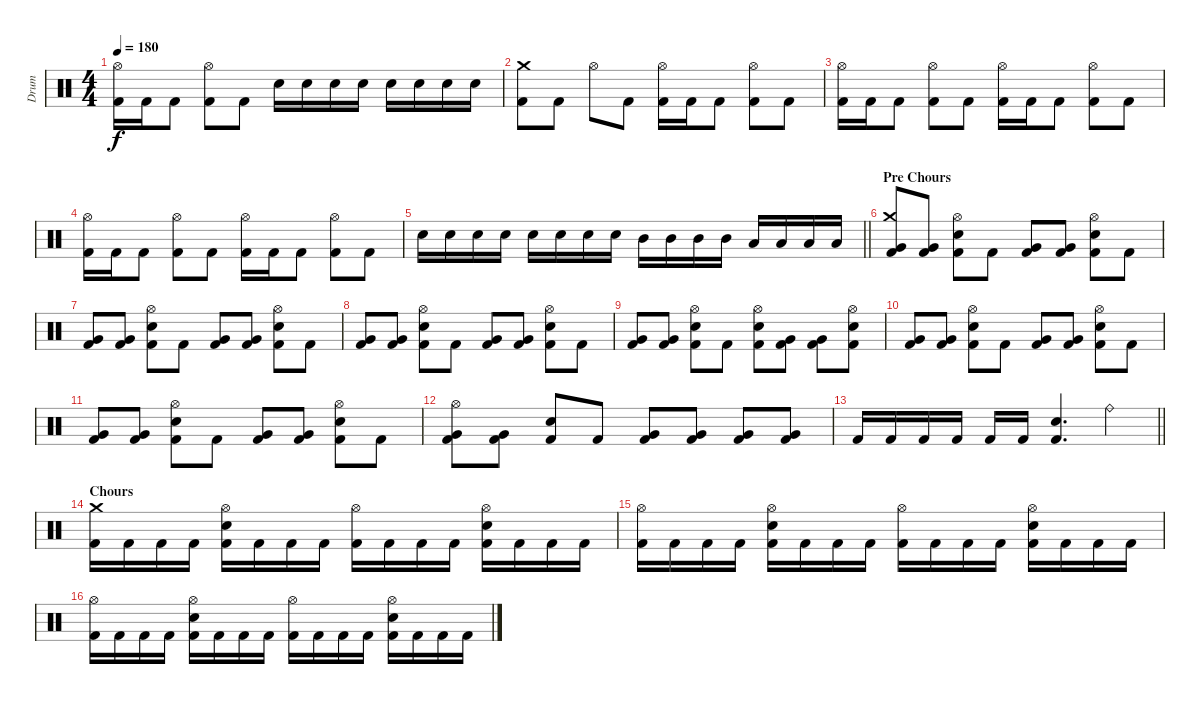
\track ("Drum" "Drum") {instrument percussion}
\staff
\articulation defaults
\ts (4 4)
\tempo 180
\clef neutral
\ks c
("Hi-Hat (open)" "Kick (hit) 2").16{dy f} "Kick (hit) 2".16 "Kick (hit) 2".8 ("Hi-Hat (open)" "Kick (hit) 2").8 "Kick (hit) 2".8 "Electric Snare (hit)".16 "Electric Snare (hit)".16 "Electric Snare (hit)".16 "Electric Snare (hit)".16 "Electric Snare (hit)".16 "Electric Snare (hit)".16 "Electric Snare (hit)".16 "Electric Snare (hit)".16 |
("Crash medium (hit)" "Kick (hit) 2").8 "Kick (hit) 2".8 "Hi-Hat (open)".8 "Kick (hit) 2".8 ("Hi-Hat (open)" "Kick (hit) 2").16 "Kick (hit) 2".16 "Kick (hit) 2".8 ("Hi-Hat (open)" "Kick (hit) 2").8 "Kick (hit) 2".8 |
("Hi-Hat (open)" "Kick (hit) 2").16 "Kick (hit) 2".16 "Kick (hit) 2".8 ("Hi-Hat (open)" "Kick (hit) 2").8 "Kick (hit) 2".8 ("Hi-Hat (open)" "Kick (hit) 2").16 "Kick (hit) 2".16 "Kick (hit) 2".8 ("Hi-Hat (open)" "Kick (hit) 2").8 "Kick (hit) 2".8 |
("Hi-Hat (open)" "Kick (hit) 2").16 "Kick (hit) 2".16 "Kick (hit) 2".8 ("Hi-Hat (open)" "Kick (hit) 2").8 "Kick (hit) 2".8 ("Hi-Hat (open)" "Kick (hit) 2").16 "Kick (hit) 2".16 "Kick (hit) 2".8 ("Hi-Hat (open)" "Kick (hit) 2").8 "Kick (hit) 2".8 |
\barLineRight lightlight "Electric Snare (hit)".16 "Electric Snare (hit)".16 "Electric Snare (hit)".16 "Electric Snare (hit)".16 "Electric Snare (hit)".16 "Electric Snare (hit)".16 "Electric Snare (hit)".16 "Electric Snare (hit)".16 "Mid Tom (hit)".16 "Mid Tom (hit)".16 "Mid Tom (hit)".16 "Mid Tom (hit)".16 "Low Tom (hit)".16 "Low Tom (hit)".16 "Low Tom (hit)".16 "Low Tom (hit)".16
|
\section ("" "Pre Chours")
("Crash medium (hit)" "Very Low Tom (hit)" "Kick (hit) 2").8 ("Very Low Tom (hit)" "Kick (hit) 2").8 ("Hi-Hat (open)" "Electric Snare (hit)" "Kick (hit) 2").8 "Kick (hit) 2".8 ("Very Low Tom (hit)" "Kick (hit) 2").8 ("Very Low Tom (hit)" "Kick (hit) 2").8 ("Hi-Hat (open)" "Electric Snare (hit)" "Kick (hit) 2").8 "Kick (hit) 2".8 |
("Very Low Tom (hit)" "Kick (hit) 2").8 ("Very Low Tom (hit)" "Kick (hit) 2").8 ("Hi-Hat (open)" "Electric Snare (hit)" "Kick (hit) 2").8 "Kick (hit) 2".8 ("Very Low Tom (hit)" "Kick (hit) 2").8 ("Very Low Tom (hit)" "Kick (hit) 2").8 ("Hi-Hat (open)" "Electric Snare (hit)" "Kick (hit) 2").8 "Kick (hit) 2".8 |
("Very Low Tom (hit)" "Kick (hit) 2").8 ("Very Low Tom (hit)" "Kick (hit) 2").8 ("Hi-Hat (open)" "Electric Snare (hit)" "Kick (hit) 2").8 "Kick (hit) 2".8 ("Very Low Tom (hit)" "Kick (hit) 2").8 ("Very Low Tom (hit)" "Kick (hit) 2").8 ("Hi-Hat (open)" "Electric Snare (hit)" "Kick (hit) 2").8 "Kick (hit) 2".8 |
("Very Low Tom (hit)" "Kick (hit) 2").8 ("Very Low Tom (hit)" "Kick (hit) 2").8 ("Hi-Hat (open)" "Electric Snare (hit)" "Kick (hit) 2").8 "Kick (hit) 2".8 ("Hi-Hat (open)" "Electric Snare (hit)" "Kick (hit) 2").8 ("Very Low Tom (hit)" "Kick (hit) 2").8 ("Very Low Tom (hit)" "Kick (hit) 2").8 ("Hi-Hat (open)" "Electric Snare (hit)" "Kick (hit) 2").8 |
("Very Low Tom (hit)" "Kick (hit) 2").8 ("Very Low Tom (hit)" "Kick (hit) 2").8 ("Hi-Hat (open)" "Electric Snare (hit)" "Kick (hit) 2").8 "Kick (hit) 2".8 ("Very Low Tom (hit)" "Kick (hit) 2").8 ("Very Low Tom (hit)" "Kick (hit) 2").8 ("Hi-Hat (open)" "Electric Snare (hit)" "Kick (hit) 2").8 "Kick (hit) 2".8 |
("Very Low Tom (hit)" "Kick (hit) 2").8 ("Very Low Tom (hit)" "Kick (hit) 2").8 ("Hi-Hat (open)" "Electric Snare (hit)" "Kick (hit) 2").8 "Kick (hit) 2".8 ("Very Low Tom (hit)" "Kick (hit) 2").8 ("Very Low Tom (hit)" "Kick (hit) 2").8 ("Hi-Hat (open)" "Electric Snare (hit)" "Kick (hit) 2").8 "Kick (hit) 2".8 |
("Hi-Hat (open)" "Very Low Tom (hit)" "Kick (hit) 2").8 ("Very Low Tom (hit)" "Kick (hit) 2").8 ("Electric Snare (hit)" "Kick (hit) 2").8 "Kick (hit) 2".8 ("Very Low Tom (hit)" "Kick (hit) 2").8 ("Very Low Tom (hit)" "Kick (hit) 2").8 ("Very Low Tom (hit)" "Kick (hit) 2").8 ("Very Low Tom (hit)" "Kick (hit) 2").8 |
\barLineRight lightlight "Kick (hit) 2".16 "Kick (hit) 2".16 "Kick (hit) 2".16 "Kick (hit) 2".16 "Kick (hit) 2".16 "Kick (hit) 2".16
("Electric Snare (hit)" "Kick (hit) 2").4{d} "Ride (bell)".4 |
\section ("" "Chours")
("Crash medium (hit)" "Kick (hit) 2").16 "Kick (hit) 2".16 "Kick (hit) 2".16 "Kick (hit) 2".16 ("Hi-Hat (open)" "Electric Snare (hit)" "Kick (hit) 2").16 "Kick (hit) 2".16 "Kick (hit) 2".16 "Kick (hit) 2".16 ("Hi-Hat (open)" "Kick (hit) 2").16 "Kick (hit) 2".16 "Kick (hit) 2".16 "Kick (hit) 2".16 ("Hi-Hat (open)" "Electric Snare (hit)" "Kick (hit) 2").16 "Kick (hit) 2".16 "Kick (hit) 2".16 "Kick (hit) 2".16 |
("Hi-Hat (open)" "Kick (hit) 2").16 "Kick (hit) 2".16 "Kick (hit) 2".16 "Kick (hit) 2".16 ("Hi-Hat (open)" "Electric Snare (hit)" "Kick (hit) 2").16 "Kick (hit) 2".16 "Kick (hit) 2".16 "Kick (hit) 2".16 ("Hi-Hat (open)" "Kick (hit) 2").16 "Kick (hit) 2".16 "Kick (hit) 2".16 "Kick (hit) 2".16 ("Hi-Hat (open)" "Electric Snare (hit)" "Kick (hit) 2").16 "Kick (hit) 2".16 "Kick (hit) 2".16 "Kick (hit) 2".16 |
("Hi-Hat (open)" "Kick (hit) 2").16 "Kick (hit) 2".16 "Kick (hit) 2".16 "Kick (hit) 2".16 ("Hi-Hat (open)" "Electric Snare (hit)" "Kick (hit) 2").16 "Kick (hit) 2".16 "Kick (hit) 2".16 "Kick (hit) 2".16 ("Hi-Hat (open)" "Kick (hit) 2").16 "Kick (hit) 2".16 "Kick (hit) 2".16 "Kick (hit) 2".16 ("Hi-Hat (open)" "Electric Snare (hit)" "Kick (hit) 2").16 "Kick (hit) 2".16 "Kick (hit) 2".16 "Kick (hit) 2".16
